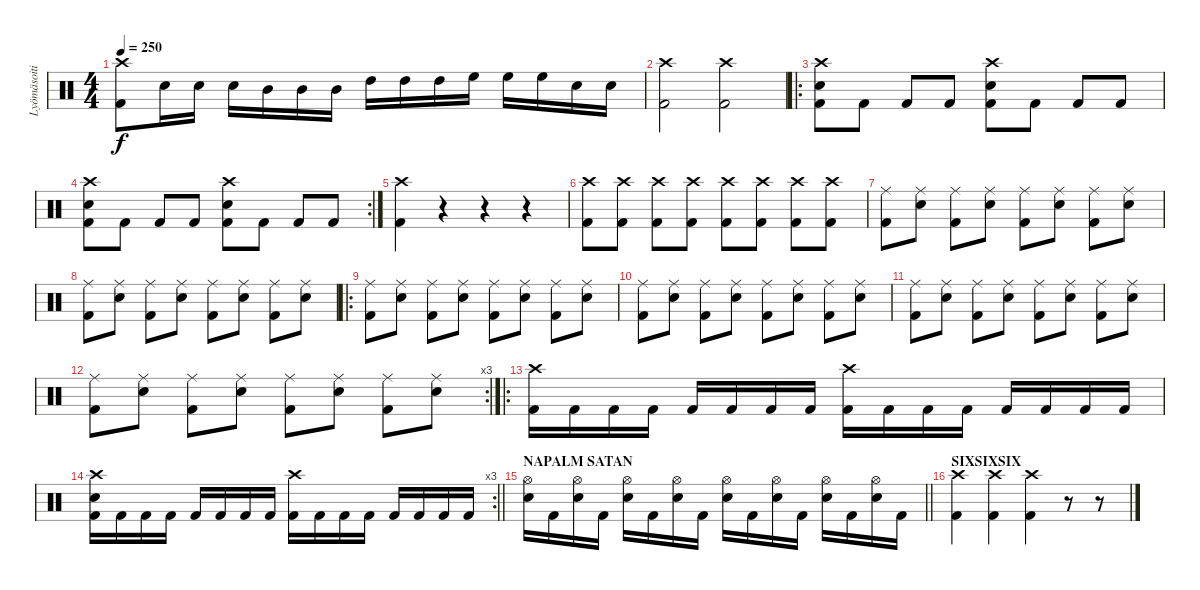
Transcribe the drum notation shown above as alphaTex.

\track ("Lyömäsoitin" "Lyömäsoiti") {instrument percussion}
\staff {score}
\articulation defaults
\ts (4 4)
\tempo 250
\clef neutral
\ks c
("Crash high (hit)" "Kick (hit) 2").8{dy f} "Electric Snare (hit)".16 "Electric Snare (hit)".16 "Electric Snare (hit)".16 "Mid Tom (hit)".16 "Mid Tom (hit)".16 "Mid Tom (hit)".16 "High Tom (hit)".16 "High Tom (hit)".16 "High Tom (hit)".16 "High Floor Tom (hit)".16 "High Floor Tom (hit)".16 "High Floor Tom (hit)".16 "Electric Snare (hit)".16 "Snare (hit)".16 |
("Crash high (hit)" "Kick (hit) 2").2 ("Crash high (hit)" "Kick (hit) 2").2 |
\ro
("Crash high (hit)" "Electric Snare (hit)" "Kick (hit) 2").8 "Kick (hit) 2".8 "Kick (hit) 2".8 "Kick (hit) 2".8 ("Crash high (hit)" "Electric Snare (hit)" "Kick (hit) 2").8 "Kick (hit) 2".8 "Kick (hit) 2".8 "Kick (hit) 2".8 |
\rc 2
("Crash high (hit)" "Electric Snare (hit)" "Kick (hit) 2").8 "Kick (hit) 2".8 "Kick (hit) 2".8 "Kick (hit) 2".8 ("Crash high (hit)" "Electric Snare (hit)" "Kick (hit) 2").8 "Kick (hit) 2".8 "Kick (hit) 2".8 "Kick (hit) 2".8 |
("Crash high (hit)" "Kick (hit) 2").4 r.4 r.4 r.4 |
("Crash high (hit)" "Kick (hit) 2").8 ("Crash high (hit)" "Kick (hit) 2").8 ("Crash high (hit)" "Kick (hit) 2").8 ("Crash high (hit)" "Kick (hit) 2").8 ("Crash high (hit)" "Kick (hit) 2").8 ("Crash high (hit)" "Kick (hit) 2").8 ("Crash high (hit)" "Kick (hit) 2").8 ("Crash high (hit)" "Kick (hit) 2").8 |
("Ride (middle)" "Kick (hit) 2").8 ("Ride (middle)" "Electric Snare (hit)").8 ("Ride (middle)" "Kick (hit) 2").8 ("Ride (middle)" "Electric Snare (hit)").8 ("Ride (middle)" "Kick (hit) 2").8 ("Ride (middle)" "Electric Snare (hit)").8 ("Ride (middle)" "Kick (hit) 2").8 ("Ride (middle)" "Electric Snare (hit)").8 |
("Ride (middle)" "Kick (hit) 2").8 ("Ride (middle)" "Electric Snare (hit)").8 ("Ride (middle)" "Kick (hit) 2").8 ("Ride (middle)" "Electric Snare (hit)").8 ("Ride (middle)" "Kick (hit) 2").8 ("Ride (middle)" "Electric Snare (hit)").8 ("Ride (middle)" "Kick (hit) 2").8 ("Ride (middle)" "Electric Snare (hit)").8 |
\ro
("Ride (middle)" "Kick (hit) 2").8 ("Ride (middle)" "Electric Snare (hit)").8 ("Ride (middle)" "Kick (hit) 2").8 ("Ride (middle)" "Electric Snare (hit)").8 ("Ride (middle)" "Kick (hit) 2").8 ("Ride (middle)" "Electric Snare (hit)").8 ("Ride (middle)" "Kick (hit) 2").8 ("Ride (middle)" "Electric Snare (hit)").8 |
("Ride (middle)" "Kick (hit) 2").8 ("Ride (middle)" "Electric Snare (hit)").8 ("Ride (middle)" "Kick (hit) 2").8 ("Ride (middle)" "Electric Snare (hit)").8 ("Ride (middle)" "Kick (hit) 2").8 ("Ride (middle)" "Electric Snare (hit)").8 ("Ride (middle)" "Kick (hit) 2").8 ("Ride (middle)" "Electric Snare (hit)").8 |
("Ride (middle)" "Kick (hit) 2").8 ("Ride (middle)" "Electric Snare (hit)").8 ("Ride (middle)" "Kick (hit) 2").8 ("Ride (middle)" "Electric Snare (hit)").8 ("Ride (middle)" "Kick (hit) 2").8 ("Ride (middle)" "Electric Snare (hit)").8 ("Ride (middle)" "Kick (hit) 2").8 ("Ride (middle)" "Electric Snare (hit)").8 |
\rc 3
("Ride (middle)" "Kick (hit) 2").8 ("Ride (middle)" "Electric Snare (hit)").8 ("Ride (middle)" "Kick (hit) 2").8 ("Ride (middle)" "Electric Snare (hit)").8 ("Ride (middle)" "Kick (hit) 2").8 ("Ride (middle)" "Electric Snare (hit)").8 ("Ride (middle)" "Kick (hit) 2").8 ("Ride (middle)" "Electric Snare (hit)").8 |
\ro
("Crash high (hit)" "Kick (hit) 2").16 "Kick (hit) 2".16 "Kick (hit) 2".16 "Kick (hit) 2".16 "Kick (hit) 2".16 "Kick (hit) 2".16 "Kick (hit) 2".16 "Kick (hit) 2".16 ("Crash high (hit)" "Kick (hit) 2").16 "Kick (hit) 2".16 "Kick (hit) 2".16 "Kick (hit) 2".16 "Kick (hit) 2".16 "Kick (hit) 2".16 "Kick (hit) 2".16 "Kick (hit) 2".16 |
\rc 3
\barLineRight lightlight
("Crash high (hit)" "Electric Snare (hit)" "Kick (hit) 2").16 "Kick (hit) 2".16 "Kick (hit) 2".16 "Kick (hit) 2".16 "Kick (hit) 2".16 "Kick (hit) 2".16 "Kick (hit) 2".16 "Kick (hit) 2".16 ("Crash high (hit)" "Kick (hit) 2").16 "Kick (hit) 2".16 "Kick (hit) 2".16 "Kick (hit) 2".16 "Kick (hit) 2".16 "Kick (hit) 2".16 "Kick (hit) 2".16 "Kick (hit) 2".16 |
\section ("" "NAPALM SATAN")
\barLineRight lightlight
("Hi-Hat (open)" "Electric Snare (hit)").16 "Kick (hit) 2".16 ("Hi-Hat (open)" "Electric Snare (hit)").16 "Kick (hit) 2".16 ("Hi-Hat (open)" "Electric Snare (hit)").16 "Kick (hit) 2".16 ("Hi-Hat (open)" "Electric Snare (hit)").16 "Kick (hit) 2".16 ("Hi-Hat (open)" "Electric Snare (hit)").16 "Kick (hit) 2".16 ("Hi-Hat (open)" "Electric Snare (hit)").16 "Kick (hit) 2".16 ("Hi-Hat (open)" "Electric Snare (hit)").16 "Kick (hit) 2".16 ("Hi-Hat (open)" "Electric Snare (hit)").16 "Kick (hit) 2".16 |
\section ("" "SIXSIXSIX")
("Crash high (hit)" "Kick (hit) 2").4 ("Crash high (hit)" "Kick (hit) 2").4 ("Crash high (hit)" "Kick (hit) 2").4 r.8 r.8
